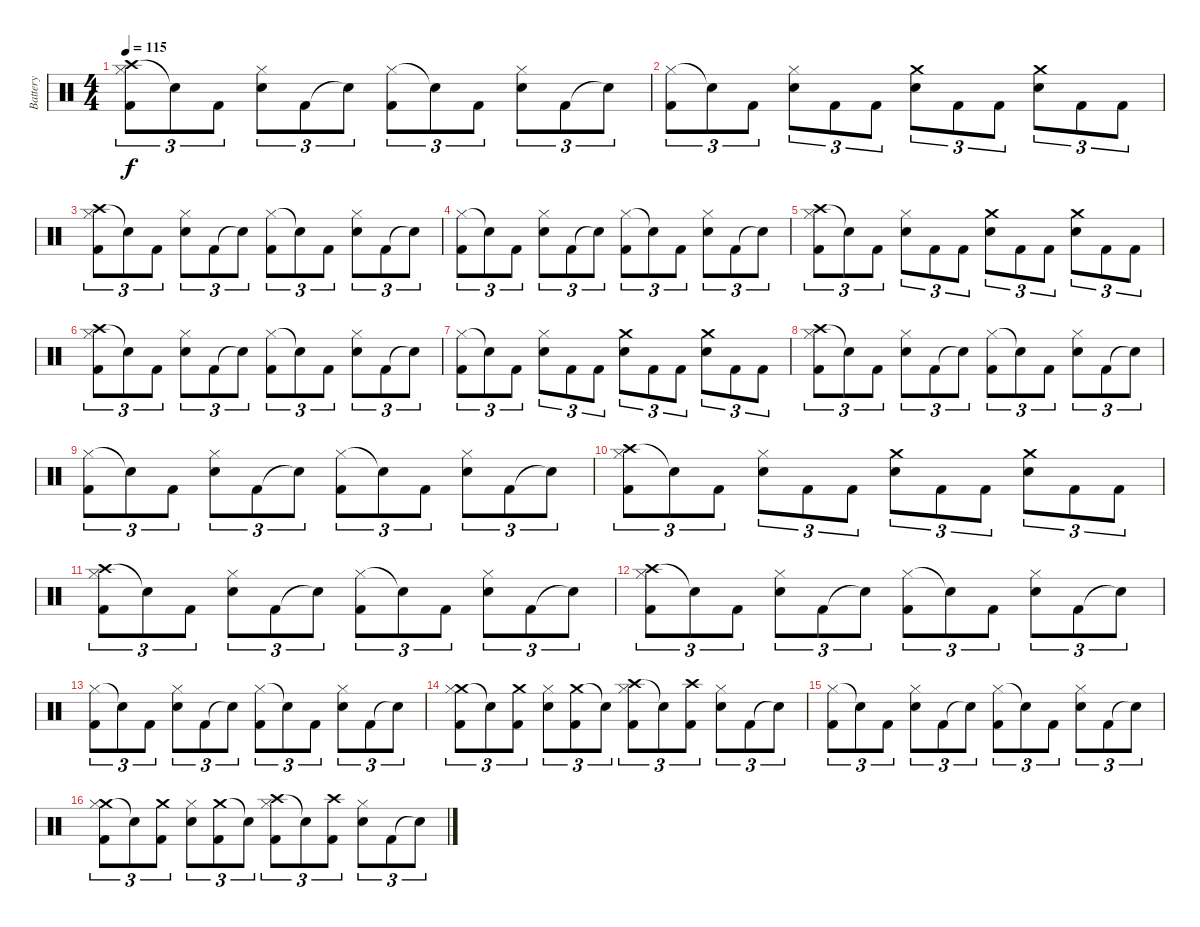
\track ("Battery" "Battery") {instrument percussion}
\staff {score}
\articulation defaults
\ts (4 4)
\tempo 115
\clef neutral
\ks c
("Crash high (hit)" "Hi-Hat (closed)" "Kick (hit) 2").8{tu (3 2) dy f} "Snare (hit)"{t}.8{tu (3 2)} "Kick (hit) 2".8{tu (3 2)} ("Hi-Hat (closed)" "Electric Snare (hit)").8{tu (3 2)} "Kick (hit) 2".8{tu (3 2)} "Snare (hit)"{t}.8{tu (3 2)} ("Hi-Hat (closed)" "Kick (hit) 2").8{tu (3 2)} "Snare (hit)"{t}.8{tu (3 2)} "Kick (hit) 2".8{tu (3 2)} ("Hi-Hat (closed)" "Electric Snare (hit)").8{tu (3 2)} "Kick (hit) 2".8{tu (3 2)} "Snare (hit)"{t}.8{tu (3 2)} |
("Hi-Hat (closed)" "Kick (hit) 2").8{tu (3 2)} "Snare (hit)"{t}.8{tu (3 2)} "Kick (hit) 2".8{tu (3 2)} ("Hi-Hat (closed)" "Electric Snare (hit)").8{tu (3 2)} "Kick (hit) 2".8{tu (3 2)} "Kick (hit) 2".8{tu (3 2)} ("Crash medium (hit)" "Electric Snare (hit)").8{tu (3 2)} "Kick (hit) 2".8{tu (3 2)} "Kick (hit) 2".8{tu (3 2)} ("Crash medium (hit)" "Electric Snare (hit)").8{tu (3 2)} "Kick (hit) 2".8{tu (3 2)} "Kick (hit) 2".8{tu (3 2)} |
("Crash high (hit)" "Hi-Hat (closed)" "Kick (hit) 2").8{tu (3 2)} "Snare (hit)"{t}.8{tu (3 2)} "Kick (hit) 2".8{tu (3 2)} ("Hi-Hat (closed)" "Electric Snare (hit)").8{tu (3 2)} "Kick (hit) 2".8{tu (3 2)} "Snare (hit)"{t}.8{tu (3 2)} ("Hi-Hat (closed)" "Kick (hit) 2").8{tu (3 2)} "Snare (hit)"{t}.8{tu (3 2)} "Kick (hit) 2".8{tu (3 2)} ("Hi-Hat (closed)" "Electric Snare (hit)").8{tu (3 2)} "Kick (hit) 2".8{tu (3 2)} "Snare (hit)"{t}.8{tu (3 2)} |
("Hi-Hat (closed)" "Kick (hit) 2").8{tu (3 2)} "Snare (hit)"{t}.8{tu (3 2)} "Kick (hit) 2".8{tu (3 2)} ("Hi-Hat (closed)" "Electric Snare (hit)").8{tu (3 2)} "Kick (hit) 2".8{tu (3 2)} "Snare (hit)"{t}.8{tu (3 2)} ("Hi-Hat (closed)" "Kick (hit) 2").8{tu (3 2)} "Snare (hit)"{t}.8{tu (3 2)} "Kick (hit) 2".8{tu (3 2)} ("Hi-Hat (closed)" "Electric Snare (hit)").8{tu (3 2)} "Kick (hit) 2".8{tu (3 2)} "Snare (hit)"{t}.8{tu (3 2)} |
("Crash high (hit)" "Hi-Hat (closed)" "Kick (hit) 2").8{tu (3 2)} "Snare (hit)"{t}.8{tu (3 2)} "Kick (hit) 2".8{tu (3 2)} ("Hi-Hat (closed)" "Electric Snare (hit)").8{tu (3 2)} "Kick (hit) 2".8{tu (3 2)} "Kick (hit) 2".8{tu (3 2)} ("Crash medium (hit)" "Electric Snare (hit)").8{tu (3 2)} "Kick (hit) 2".8{tu (3 2)} "Kick (hit) 2".8{tu (3 2)} ("Crash medium (hit)" "Electric Snare (hit)").8{tu (3 2)} "Kick (hit) 2".8{tu (3 2)} "Kick (hit) 2".8{tu (3 2)} |
("Crash high (hit)" "Hi-Hat (closed)" "Kick (hit) 2").8{tu (3 2)} "Snare (hit)"{t}.8{tu (3 2)} "Kick (hit) 2".8{tu (3 2)} ("Hi-Hat (closed)" "Electric Snare (hit)").8{tu (3 2)} "Kick (hit) 2".8{tu (3 2)} "Snare (hit)"{t}.8{tu (3 2)} ("Hi-Hat (closed)" "Kick (hit) 2").8{tu (3 2)} "Snare (hit)"{t}.8{tu (3 2)} "Kick (hit) 2".8{tu (3 2)} ("Hi-Hat (closed)" "Electric Snare (hit)").8{tu (3 2)} "Kick (hit) 2".8{tu (3 2)} "Snare (hit)"{t}.8{tu (3 2)} |
("Hi-Hat (closed)" "Kick (hit) 2").8{tu (3 2)} "Snare (hit)"{t}.8{tu (3 2)} "Kick (hit) 2".8{tu (3 2)} ("Hi-Hat (closed)" "Electric Snare (hit)").8{tu (3 2)} "Kick (hit) 2".8{tu (3 2)} "Kick (hit) 2".8{tu (3 2)} ("Crash medium (hit)" "Electric Snare (hit)").8{tu (3 2)} "Kick (hit) 2".8{tu (3 2)} "Kick (hit) 2".8{tu (3 2)} ("Crash medium (hit)" "Electric Snare (hit)").8{tu (3 2)} "Kick (hit) 2".8{tu (3 2)} "Kick (hit) 2".8{tu (3 2)} |
("Crash high (hit)" "Hi-Hat (closed)" "Kick (hit) 2").8{tu (3 2)} "Snare (hit)"{t}.8{tu (3 2)} "Kick (hit) 2".8{tu (3 2)} ("Hi-Hat (closed)" "Electric Snare (hit)").8{tu (3 2)} "Kick (hit) 2".8{tu (3 2)} "Snare (hit)"{t}.8{tu (3 2)} ("Hi-Hat (closed)" "Kick (hit) 2").8{tu (3 2)} "Snare (hit)"{t}.8{tu (3 2)} "Kick (hit) 2".8{tu (3 2)} ("Hi-Hat (closed)" "Electric Snare (hit)").8{tu (3 2)} "Kick (hit) 2".8{tu (3 2)} "Snare (hit)"{t}.8{tu (3 2)} |
("Hi-Hat (closed)" "Kick (hit) 2").8{tu (3 2)} "Snare (hit)"{t}.8{tu (3 2)} "Kick (hit) 2".8{tu (3 2)} ("Hi-Hat (closed)" "Electric Snare (hit)").8{tu (3 2)} "Kick (hit) 2".8{tu (3 2)} "Snare (hit)"{t}.8{tu (3 2)} ("Hi-Hat (closed)" "Kick (hit) 2").8{tu (3 2)} "Snare (hit)"{t}.8{tu (3 2)} "Kick (hit) 2".8{tu (3 2)} ("Hi-Hat (closed)" "Electric Snare (hit)").8{tu (3 2)} "Kick (hit) 2".8{tu (3 2)} "Snare (hit)"{t}.8{tu (3 2)} |
("Crash high (hit)" "Hi-Hat (closed)" "Kick (hit) 2").8{tu (3 2)} "Snare (hit)"{t}.8{tu (3 2)} "Kick (hit) 2".8{tu (3 2)} ("Hi-Hat (closed)" "Electric Snare (hit)").8{tu (3 2)} "Kick (hit) 2".8{tu (3 2)} "Kick (hit) 2".8{tu (3 2)} ("Crash medium (hit)" "Electric Snare (hit)").8{tu (3 2)} "Kick (hit) 2".8{tu (3 2)} "Kick (hit) 2".8{tu (3 2)} ("Crash medium (hit)" "Electric Snare (hit)").8{tu (3 2)} "Kick (hit) 2".8{tu (3 2)} "Kick (hit) 2".8{tu (3 2)} |
("Crash high (hit)" "Hi-Hat (closed)" "Kick (hit) 2").8{tu (3 2)} "Snare (hit)"{t}.8{tu (3 2)} "Kick (hit) 2".8{tu (3 2)} ("Hi-Hat (closed)" "Electric Snare (hit)").8{tu (3 2)} "Kick (hit) 2".8{tu (3 2)} "Snare (hit)"{t}.8{tu (3 2)} ("Hi-Hat (closed)" "Kick (hit) 2").8{tu (3 2)} "Snare (hit)"{t}.8{tu (3 2)} "Kick (hit) 2".8{tu (3 2)} ("Hi-Hat (closed)" "Electric Snare (hit)").8{tu (3 2)} "Kick (hit) 2".8{tu (3 2)} "Snare (hit)"{t}.8{tu (3 2)} |
("Crash high (hit)" "Hi-Hat (closed)" "Kick (hit) 2").8{tu (3 2)} "Snare (hit)"{t}.8{tu (3 2)} "Kick (hit) 2".8{tu (3 2)} ("Hi-Hat (closed)" "Electric Snare (hit)").8{tu (3 2)} "Kick (hit) 2".8{tu (3 2)} "Snare (hit)"{t}.8{tu (3 2)} ("Hi-Hat (closed)" "Kick (hit) 2").8{tu (3 2)} "Snare (hit)"{t}.8{tu (3 2)} "Kick (hit) 2".8{tu (3 2)} ("Hi-Hat (closed)" "Electric Snare (hit)").8{tu (3 2)} "Kick (hit) 2".8{tu (3 2)} "Snare (hit)"{t}.8{tu (3 2)} |
("Hi-Hat (closed)" "Kick (hit) 2").8{tu (3 2)} "Snare (hit)"{t}.8{tu (3 2)} "Kick (hit) 2".8{tu (3 2)} ("Hi-Hat (closed)" "Electric Snare (hit)").8{tu (3 2)} "Kick (hit) 2".8{tu (3 2)} "Snare (hit)"{t}.8{tu (3 2)} ("Hi-Hat (closed)" "Kick (hit) 2").8{tu (3 2)} "Snare (hit)"{t}.8{tu (3 2)} "Kick (hit) 2".8{tu (3 2)} ("Hi-Hat (closed)" "Electric Snare (hit)").8{tu (3 2)} "Kick (hit) 2".8{tu (3 2)} "Snare (hit)"{t}.8{tu (3 2)} |
("Crash medium (hit)" "Hi-Hat (closed)" "Kick (hit) 2").8{tu (3 2)} "Snare (hit)"{t}.8{tu (3 2)} ("Crash medium (hit)" "Kick (hit) 2").8{tu (3 2)} ("Hi-Hat (closed)" "Electric Snare (hit)").8{tu (3 2)} ("Crash medium (hit)" "Kick (hit) 2").8{tu (3 2)} "Snare (hit)"{t}.8{tu (3 2)} ("Crash high (hit)" "Hi-Hat (closed)" "Kick (hit) 2").8{tu (3 2)} "Snare (hit)"{t}.8{tu (3 2)} ("Crash high (hit)" "Kick (hit) 2").8{tu (3 2)} ("Hi-Hat (closed)" "Electric Snare (hit)").8{tu (3 2)} "Kick (hit) 2".8{tu (3 2)} "Snare (hit)"{t}.8{tu (3 2)} |
("Hi-Hat (closed)" "Kick (hit) 2").8{tu (3 2)} "Snare (hit)"{t}.8{tu (3 2)} "Kick (hit) 2".8{tu (3 2)} ("Hi-Hat (closed)" "Electric Snare (hit)").8{tu (3 2)} "Kick (hit) 2".8{tu (3 2)} "Snare (hit)"{t}.8{tu (3 2)} ("Hi-Hat (closed)" "Kick (hit) 2").8{tu (3 2)} "Snare (hit)"{t}.8{tu (3 2)} "Kick (hit) 2".8{tu (3 2)} ("Hi-Hat (closed)" "Electric Snare (hit)").8{tu (3 2)} "Kick (hit) 2".8{tu (3 2)} "Snare (hit)"{t}.8{tu (3 2)} |
("Crash medium (hit)" "Hi-Hat (closed)" "Kick (hit) 2").8{tu (3 2)} "Snare (hit)"{t}.8{tu (3 2)} ("Crash medium (hit)" "Kick (hit) 2").8{tu (3 2)} ("Hi-Hat (closed)" "Electric Snare (hit)").8{tu (3 2)} ("Crash medium (hit)" "Kick (hit) 2").8{tu (3 2)} "Snare (hit)"{t}.8{tu (3 2)} ("Crash high (hit)" "Hi-Hat (closed)" "Kick (hit) 2").8{tu (3 2)} "Snare (hit)"{t}.8{tu (3 2)} ("Crash high (hit)" "Kick (hit) 2").8{tu (3 2)} ("Hi-Hat (closed)" "Electric Snare (hit)").8{tu (3 2)} "Kick (hit) 2".8{tu (3 2)} "Snare (hit)"{t}.8{tu (3 2)}
